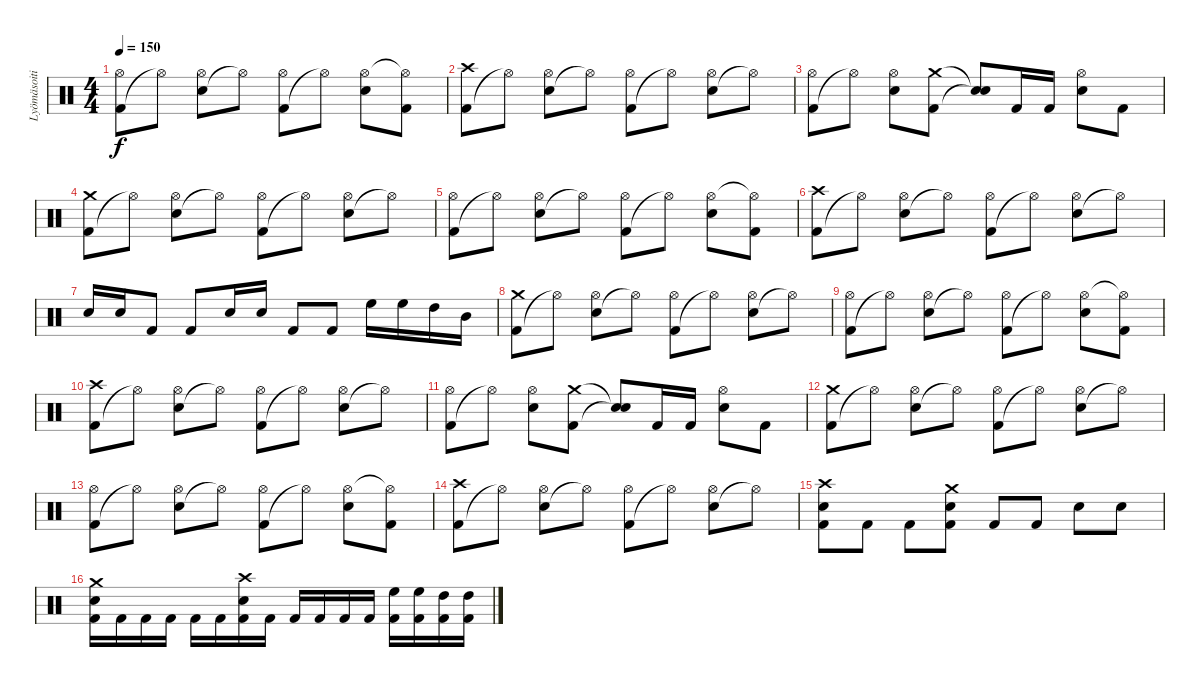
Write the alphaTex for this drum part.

\track ("Lyömäsoitin" "Lyömäsoiti") {instrument percussion}
\staff {score}
\articulation defaults
\ts (4 4)
\tempo 150
\clef neutral
\ks c
("Kick (hit) 2" "Hi-Hat (open)").8{dy f} "Hi-Hat (open)"{t}.8 ("Electric Snare (hit)" "Hi-Hat (open)").8 "Hi-Hat (open)"{t}.8 ("Kick (hit) 2" "Hi-Hat (open)").8 "Hi-Hat (open)"{t}.8 ("Electric Snare (hit)" "Hi-Hat (open)").8 ("Kick (hit) 2" "Hi-Hat (open)"{t}).8 |
("Kick (hit) 2" "Crash high (hit)").8 "Hi-Hat (open)"{t}.8 ("Electric Snare (hit)" "Hi-Hat (open)").8 "Hi-Hat (open)"{t}.8 ("Kick (hit) 2" "Hi-Hat (open)").8 "Hi-Hat (open)"{t}.8 ("Electric Snare (hit)" "Hi-Hat (open)").8 "Hi-Hat (open)"{t}.8 |
("Kick (hit) 2" "Hi-Hat (open)").8 "Hi-Hat (open)"{t}.8 ("Electric Snare (hit)" "Hi-Hat (open)").8 ("Kick (hit) 2" "Crash medium (hit)").8 ("Snare (hit)"{t} "Snare (hit)"{t}).8 "Kick (hit) 2".16 "Kick (hit) 2".16 ("Electric Snare (hit)" "Hi-Hat (open)").8 "Kick (hit) 2".8 |
("Kick (hit) 2" "Crash medium (hit)").8 "Hi-Hat (open)"{t}.8 ("Electric Snare (hit)" "Hi-Hat (open)").8 "Hi-Hat (open)"{t}.8 ("Kick (hit) 2" "Hi-Hat (open)").8 "Hi-Hat (open)"{t}.8 ("Electric Snare (hit)" "Hi-Hat (open)").8 "Hi-Hat (open)"{t}.8 |
("Kick (hit) 2" "Hi-Hat (open)").8 "Hi-Hat (open)"{t}.8 ("Electric Snare (hit)" "Hi-Hat (open)").8 "Hi-Hat (open)"{t}.8 ("Kick (hit) 2" "Hi-Hat (open)").8 "Hi-Hat (open)"{t}.8 ("Electric Snare (hit)" "Hi-Hat (open)").8 ("Kick (hit) 2" "Hi-Hat (open)"{t}).8 |
("Kick (hit) 2" "Crash high (hit)").8 "Hi-Hat (open)"{t}.8 ("Electric Snare (hit)" "Hi-Hat (open)").8 "Hi-Hat (open)"{t}.8 ("Kick (hit) 2" "Hi-Hat (open)").8 "Hi-Hat (open)"{t}.8 ("Electric Snare (hit)" "Hi-Hat (open)").8 "Hi-Hat (open)"{t}.8 |
"Electric Snare (hit)".16 "Electric Snare (hit)".16 "Kick (hit) 2".8 "Kick (hit) 2".8 "Electric Snare (hit)".16 "Electric Snare (hit)".16 "Kick (hit) 2".8 "Kick (hit) 2".8 "High Floor Tom (hit)".16 "High Floor Tom (hit)".16 "High Tom (hit)".16 "Mid Tom (hit)".16 |
("Kick (hit) 2" "Crash medium (hit)").8 "Hi-Hat (open)"{t}.8 ("Electric Snare (hit)" "Hi-Hat (open)").8 "Hi-Hat (open)"{t}.8 ("Kick (hit) 2" "Hi-Hat (open)").8 "Hi-Hat (open)"{t}.8 ("Electric Snare (hit)" "Hi-Hat (open)").8 "Hi-Hat (open)"{t}.8 |
("Kick (hit) 2" "Hi-Hat (open)").8 "Hi-Hat (open)"{t}.8 ("Electric Snare (hit)" "Hi-Hat (open)").8 "Hi-Hat (open)"{t}.8 ("Kick (hit) 2" "Hi-Hat (open)").8 "Hi-Hat (open)"{t}.8 ("Electric Snare (hit)" "Hi-Hat (open)").8 ("Kick (hit) 2" "Hi-Hat (open)"{t}).8 |
("Kick (hit) 2" "Crash high (hit)").8 "Hi-Hat (open)"{t}.8 ("Electric Snare (hit)" "Hi-Hat (open)").8 "Hi-Hat (open)"{t}.8 ("Kick (hit) 2" "Hi-Hat (open)").8 "Hi-Hat (open)"{t}.8 ("Electric Snare (hit)" "Hi-Hat (open)").8 "Hi-Hat (open)"{t}.8 |
("Kick (hit) 2" "Hi-Hat (open)").8 "Hi-Hat (open)"{t}.8 ("Electric Snare (hit)" "Hi-Hat (open)").8 ("Kick (hit) 2" "Crash medium (hit)").8 ("Snare (hit)"{t} "Snare (hit)"{t}).8 "Kick (hit) 2".16 "Kick (hit) 2".16 ("Electric Snare (hit)" "Hi-Hat (open)").8 "Kick (hit) 2".8 |
("Kick (hit) 2" "Crash medium (hit)").8 "Hi-Hat (open)"{t}.8 ("Electric Snare (hit)" "Hi-Hat (open)").8 "Hi-Hat (open)"{t}.8 ("Kick (hit) 2" "Hi-Hat (open)").8 "Hi-Hat (open)"{t}.8 ("Electric Snare (hit)" "Hi-Hat (open)").8 "Hi-Hat (open)"{t}.8 |
("Kick (hit) 2" "Hi-Hat (open)").8 "Hi-Hat (open)"{t}.8 ("Electric Snare (hit)" "Hi-Hat (open)").8 "Hi-Hat (open)"{t}.8 ("Kick (hit) 2" "Hi-Hat (open)").8 "Hi-Hat (open)"{t}.8 ("Electric Snare (hit)" "Hi-Hat (open)").8 ("Kick (hit) 2" "Hi-Hat (open)"{t}).8 |
("Kick (hit) 2" "Crash high (hit)").8 "Hi-Hat (open)"{t}.8 ("Electric Snare (hit)" "Hi-Hat (open)").8 "Hi-Hat (open)"{t}.8 ("Kick (hit) 2" "Hi-Hat (open)").8 "Hi-Hat (open)"{t}.8 ("Electric Snare (hit)" "Hi-Hat (open)").8 "Hi-Hat (open)"{t}.8 |
("Electric Snare (hit)" "Kick (hit) 2" "Crash high (hit)").8 "Kick (hit) 2".8 "Kick (hit) 2".8 ("Electric Snare (hit)" "Kick (hit) 2" "Crash medium (hit)").8 "Kick (hit) 2".8 "Kick (hit) 2".8 "Electric Snare (hit)".8 "Electric Snare (hit)".8 |
("Electric Snare (hit)" "Kick (hit) 2" "Crash medium (hit)").16 "Kick (hit) 2".16 "Kick (hit) 2".16 "Kick (hit) 2".16 "Kick (hit) 2".16 "Kick (hit) 2".16 ("Electric Snare (hit)" "Kick (hit) 2" "Crash high (hit)").16 "Kick (hit) 2".16 "Kick (hit) 2".16 "Kick (hit) 2".16 "Kick (hit) 2".16 "Kick (hit) 2".16 ("High Floor Tom (hit)" "Kick (hit) 2").16 ("High Floor Tom (hit)" "Kick (hit) 2").16 ("High Tom (hit)" "Kick (hit) 2").16 ("High Tom (hit)" "Kick (hit) 2").16
